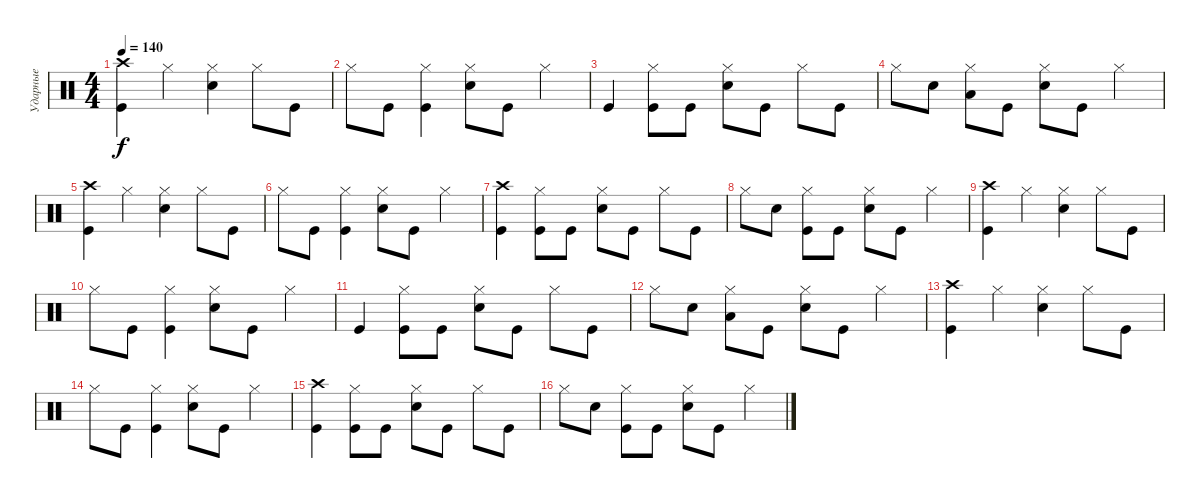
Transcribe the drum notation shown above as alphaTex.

\track ("Ударные" "Ударные") {instrument percussion}
\staff {score}
\articulation defaults
\ts (4 4)
\tempo 140
\clef neutral
\ks c
("Crash high (hit)" "Kick (hit)").4{dy f} "Hi-Hat (closed)".4 ("Hi-Hat (closed)" "Snare (hit) 2").4 "Hi-Hat (closed)".8 "Kick (hit)".8 |
"Hi-Hat (closed)".8 "Kick (hit)".8 ("Hi-Hat (closed)" "Kick (hit)").4 ("Hi-Hat (closed)" "Snare (hit) 2").8 "Kick (hit)".8 "Hi-Hat (closed)".4 |
"Kick (hit)".4 ("Hi-Hat (closed)" "Kick (hit)").8 "Kick (hit)".8 ("Hi-Hat (closed)" "Snare (hit) 2").8 "Kick (hit)".8 "Hi-Hat (closed)".8 "Kick (hit)".8 |
"Hi-Hat (closed)".8 "Snare (hit) 2".8 ("Hi-Hat (closed)" "Low Tom (hit)").8 "Kick (hit)".8 ("Hi-Hat (closed)" "Snare (hit) 2").8 "Kick (hit)".8 "Hi-Hat (closed)".4 |
("Crash high (hit)" "Kick (hit)").4 "Hi-Hat (closed)".4 ("Hi-Hat (closed)" "Snare (hit) 2").4 "Hi-Hat (closed)".8 "Kick (hit)".8 |
"Hi-Hat (closed)".8 "Kick (hit)".8 ("Hi-Hat (closed)" "Kick (hit)").4 ("Hi-Hat (closed)" "Snare (hit) 2").8 "Kick (hit)".8 "Hi-Hat (closed)".4 |
("Crash high (hit)" "Kick (hit)").4 ("Hi-Hat (closed)" "Kick (hit)").8 "Kick (hit)".8 ("Hi-Hat (closed)" "Snare (hit) 2").8 "Kick (hit)".8 "Hi-Hat (closed)".8 "Kick (hit)".8 |
"Hi-Hat (closed)".8 "Snare (hit) 2".8 ("Hi-Hat (closed)" "Kick (hit)").8 "Kick (hit)".8 ("Hi-Hat (closed)" "Snare (hit) 2").8 "Kick (hit)".8 "Hi-Hat (closed)".4 |
("Crash high (hit)" "Kick (hit)").4 "Hi-Hat (closed)".4 ("Hi-Hat (closed)" "Snare (hit) 2").4 "Hi-Hat (closed)".8 "Kick (hit)".8 |
"Hi-Hat (closed)".8 "Kick (hit)".8 ("Hi-Hat (closed)" "Kick (hit)").4 ("Hi-Hat (closed)" "Snare (hit) 2").8 "Kick (hit)".8 "Hi-Hat (closed)".4 |
"Kick (hit)".4 ("Hi-Hat (closed)" "Kick (hit)").8 "Kick (hit)".8 ("Hi-Hat (closed)" "Snare (hit) 2").8 "Kick (hit)".8 "Hi-Hat (closed)".8 "Kick (hit)".8 |
"Hi-Hat (closed)".8 "Snare (hit) 2".8 ("Hi-Hat (closed)" "Low Tom (hit)").8 "Kick (hit)".8 ("Hi-Hat (closed)" "Snare (hit) 2").8 "Kick (hit)".8 "Hi-Hat (closed)".4 |
("Crash high (hit)" "Kick (hit)").4 "Hi-Hat (closed)".4 ("Hi-Hat (closed)" "Snare (hit) 2").4 "Hi-Hat (closed)".8 "Kick (hit)".8 |
"Hi-Hat (closed)".8 "Kick (hit)".8 ("Hi-Hat (closed)" "Kick (hit)").4 ("Hi-Hat (closed)" "Snare (hit) 2").8 "Kick (hit)".8 "Hi-Hat (closed)".4 |
("Crash high (hit)" "Kick (hit)").4 ("Hi-Hat (closed)" "Kick (hit)").8 "Kick (hit)".8 ("Hi-Hat (closed)" "Snare (hit) 2").8 "Kick (hit)".8 "Hi-Hat (closed)".8 "Kick (hit)".8 |
"Hi-Hat (closed)".8 "Snare (hit) 2".8 ("Hi-Hat (closed)" "Kick (hit)").8 "Kick (hit)".8 ("Hi-Hat (closed)" "Snare (hit) 2").8 "Kick (hit)".8 "Hi-Hat (closed)".4
